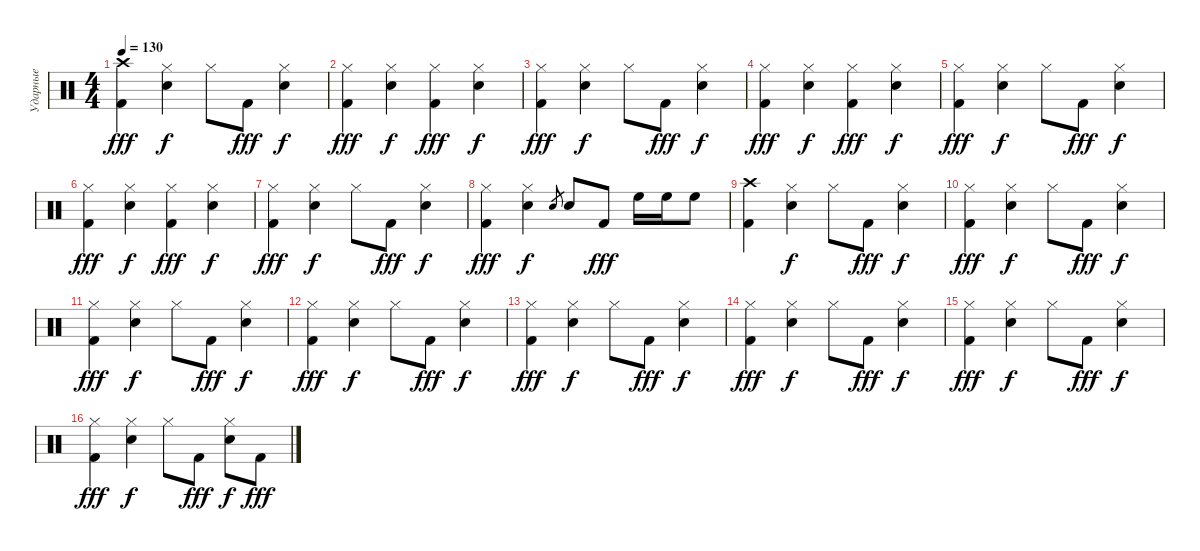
\track ("Ударные" "Ударные") {instrument percussion}
\staff {score}
\articulation defaults
\ts (4 4)
\tempo 130
\clef neutral
\ks c
("Kick (hit) 2" "Crash high (hit)").4{dy fff} ("Snare (hit) 2" "Hi-Hat (closed)").4{dy f} "Hi-Hat (closed)".8 "Kick (hit) 2".8{dy fff} ("Snare (hit) 2" "Hi-Hat (closed)").4{dy f} |
("Kick (hit) 2" "Hi-Hat (closed)").4{dy fff} ("Snare (hit) 2" "Hi-Hat (closed)").4{dy f} ("Kick (hit) 2" "Hi-Hat (closed)").4{dy fff} ("Snare (hit) 2" "Hi-Hat (closed)").4{dy f} |
("Kick (hit) 2" "Hi-Hat (closed)").4{dy fff} ("Snare (hit) 2" "Hi-Hat (closed)").4{dy f} "Hi-Hat (closed)".8 "Kick (hit) 2".8{dy fff} ("Snare (hit) 2" "Hi-Hat (closed)").4{dy f} |
("Kick (hit) 2" "Hi-Hat (closed)").4{dy fff} ("Snare (hit) 2" "Hi-Hat (closed)").4{dy f} ("Kick (hit) 2" "Hi-Hat (closed)").4{dy fff} ("Snare (hit) 2" "Hi-Hat (closed)").4{dy f} |
("Kick (hit) 2" "Hi-Hat (closed)").4{dy fff} ("Snare (hit) 2" "Hi-Hat (closed)").4{dy f} "Hi-Hat (closed)".8 "Kick (hit) 2".8{dy fff} ("Snare (hit) 2" "Hi-Hat (closed)").4{dy f} |
("Kick (hit) 2" "Hi-Hat (closed)").4{dy fff} ("Snare (hit) 2" "Hi-Hat (closed)").4{dy f} ("Kick (hit) 2" "Hi-Hat (closed)").4{dy fff} ("Snare (hit) 2" "Hi-Hat (closed)").4{dy f} |
("Kick (hit) 2" "Hi-Hat (closed)").4{dy fff} ("Snare (hit) 2" "Hi-Hat (closed)").4{dy f} "Hi-Hat (closed)".8 "Kick (hit) 2".8{dy fff} ("Snare (hit) 2" "Hi-Hat (closed)").4{dy f} |
("Kick (hit) 2" "Hi-Hat (closed)").4{dy fff} ("Snare (hit) 2" "Hi-Hat (closed)").4{dy f} "Snare (hit) 2".8{gr} "Snare (hit) 2".8 "Kick (hit) 2".8{dy fff} "High Floor Tom (hit)".16 "High Floor Tom (hit)".16 "High Floor Tom (hit)".8 |
("Kick (hit) 2" "Crash high (hit)").4 ("Snare (hit) 2" "Hi-Hat (closed)").4{dy f} "Hi-Hat (closed)".8 "Kick (hit) 2".8{dy fff} ("Snare (hit) 2" "Hi-Hat (closed)").4{dy f} |
("Kick (hit) 2" "Hi-Hat (closed)").4{dy fff} ("Snare (hit) 2" "Hi-Hat (closed)").4{dy f} "Hi-Hat (closed)".8 "Kick (hit) 2".8{dy fff} ("Snare (hit) 2" "Hi-Hat (closed)").4{dy f} |
("Kick (hit) 2" "Hi-Hat (closed)").4{dy fff} ("Snare (hit) 2" "Hi-Hat (closed)").4{dy f} "Hi-Hat (closed)".8 "Kick (hit) 2".8{dy fff} ("Snare (hit) 2" "Hi-Hat (closed)").4{dy f} |
("Kick (hit) 2" "Hi-Hat (closed)").4{dy fff} ("Snare (hit) 2" "Hi-Hat (closed)").4{dy f} "Hi-Hat (closed)".8 "Kick (hit) 2".8{dy fff} ("Snare (hit) 2" "Hi-Hat (closed)").4{dy f} |
("Kick (hit) 2" "Hi-Hat (closed)").4{dy fff} ("Snare (hit) 2" "Hi-Hat (closed)").4{dy f} "Hi-Hat (closed)".8 "Kick (hit) 2".8{dy fff} ("Snare (hit) 2" "Hi-Hat (closed)").4{dy f} |
("Kick (hit) 2" "Hi-Hat (closed)").4{dy fff} ("Snare (hit) 2" "Hi-Hat (closed)").4{dy f} "Hi-Hat (closed)".8 "Kick (hit) 2".8{dy fff} ("Snare (hit) 2" "Hi-Hat (closed)").4{dy f} |
("Kick (hit) 2" "Hi-Hat (closed)").4{dy fff} ("Snare (hit) 2" "Hi-Hat (closed)").4{dy f} "Hi-Hat (closed)".8 "Kick (hit) 2".8{dy fff} ("Snare (hit) 2" "Hi-Hat (closed)").4{dy f} |
("Kick (hit) 2" "Hi-Hat (closed)").4{dy fff} ("Snare (hit) 2" "Hi-Hat (closed)").4{dy f} "Hi-Hat (closed)".8 "Kick (hit) 2".8{dy fff} ("Snare (hit) 2" "Hi-Hat (closed)").8{dy f} "Kick (hit) 2".8{dy fff}
